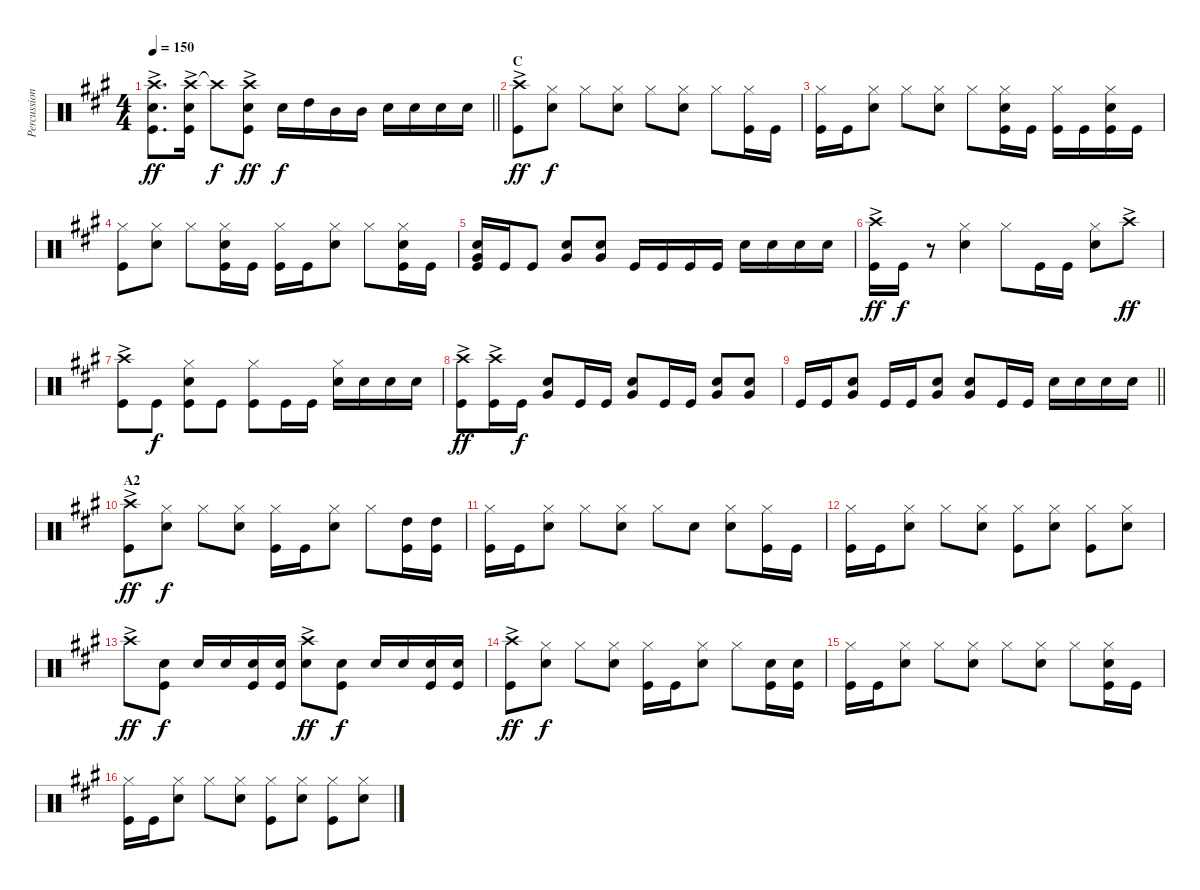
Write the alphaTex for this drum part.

\track ("Percussion" "Percussion") {instrument percussion}
\staff {score}
\articulation defaults
\ts (4 4)
\tempo 150
\clef neutral
\barLineRight lightlight
\ks a
("Crash high (hit)"{ac} "Snare (hit) 2" "Kick (hit)").8{d dy ff} ("Crash high (hit)"{ac} "Snare (hit) 2" "Kick (hit)").16 "Crash high (hit)"{t}.8{dy f} ("Crash high (hit)"{ac} "Snare (hit) 2" "Kick (hit)").8{dy ff} "Snare (hit) 2".16{dy f} "High Tom (hit)".16 "Mid Tom (hit)".16 "Mid Tom (hit)".16 "Snare (hit) 2".16 "Snare (hit) 2".16 "Snare (hit) 2".16 "Snare (hit) 2".16 |
\section ("" "C")
("Crash high (hit)"{ac} "Kick (hit)").8{dy ff} ("Hi-Hat (closed)" "Snare (hit) 2").8{dy f} "Hi-Hat (closed)".8 ("Hi-Hat (closed)" "Snare (hit) 2").8 "Hi-Hat (closed)".8 ("Hi-Hat (closed)" "Snare (hit) 2").8 "Hi-Hat (closed)".8 ("Hi-Hat (closed)" "Kick (hit)").16 "Kick (hit)".16 |
("Kick (hit)" "Hi-Hat (closed)").16 "Kick (hit)".16 ("Hi-Hat (closed)" "Snare (hit) 2").8 "Hi-Hat (closed)".8 ("Hi-Hat (closed)" "Snare (hit) 2").8 "Hi-Hat (closed)".8 ("Hi-Hat (closed)" "Snare (hit) 2" "Kick (hit)").16 "Kick (hit)".16 ("Hi-Hat (closed)" "Kick (hit)").16 "Kick (hit)".16 ("Hi-Hat (closed)" "Snare (hit) 2" "Kick (hit)").16 "Kick (hit)".16 |
("Hi-Hat (closed)" "Kick (hit)").8 ("Hi-Hat (closed)" "Snare (hit) 2").8 "Hi-Hat (closed)".8 ("Hi-Hat (closed)" "Snare (hit) 2" "Kick (hit)").16 "Kick (hit)".16 ("Kick (hit)" "Hi-Hat (closed)").16 "Kick (hit)".16 ("Hi-Hat (closed)" "Snare (hit) 2").8 "Hi-Hat (closed)".8 ("Hi-Hat (closed)" "Snare (hit) 2" "Kick (hit)").16 "Kick (hit)".16 |
("Snare (hit) 2" "Very Low Tom (hit)" "Kick (hit)").16 "Kick (hit)".16 "Kick (hit)".8 ("Snare (hit) 2" "Very Low Tom (hit)").8 ("Snare (hit) 2" "Very Low Tom (hit)").8 "Kick (hit)".16 "Kick (hit)".16 "Kick (hit)".16 "Kick (hit)".16 "Snare (hit) 2".16 "Snare (hit) 2".16 "Snare (hit) 2".16 "Snare (hit) 2".16 |
("Kick (hit)" "Crash high (hit)"{ac}).16{dy ff} "Kick (hit)".16{dy f} r.8 ("Hi-Hat (closed)" "Snare (hit) 2").4 "Hi-Hat (closed)".8 "Kick (hit)".16 "Kick (hit)".16 ("Hi-Hat (closed)" "Snare (hit) 2").8 "Crash high (hit)"{ac}.8{dy ff} |
("Crash high (hit)"{ac} "Kick (hit)").8 "Kick (hit)".8{dy f} ("Kick (hit)" "Hi-Hat (closed)" "Snare (hit) 2").8 "Kick (hit)".8 ("Kick (hit)" "Hi-Hat (closed)").8 "Kick (hit)".16 "Kick (hit)".16 ("Hi-Hat (closed)" "Snare (hit) 2").16 "Snare (hit) 2".16 "Snare (hit) 2".16 "Snare (hit) 2".16 |
("Crash high (hit)"{ac} "Kick (hit)").8{dy ff} ("Crash high (hit)"{ac} "Kick (hit)").16 "Kick (hit)".16{dy f} ("Snare (hit) 2" "Very Low Tom (hit)").8 "Kick (hit)".16 "Kick (hit)".16 ("Snare (hit) 2" "Very Low Tom (hit)").8 "Kick (hit)".16 "Kick (hit)".16 ("Snare (hit) 2" "Very Low Tom (hit)").8 ("Snare (hit) 2" "Very Low Tom (hit)").8 |
\barLineRight lightlight "Kick (hit)".16 "Kick (hit)".16
("Snare (hit) 2" "Very Low Tom (hit)").8 "Kick (hit)".16 "Kick (hit)".16 ("Snare (hit) 2" "Very Low Tom (hit)").8 ("Snare (hit) 2" "Very Low Tom (hit)").8 "Kick (hit)".16 "Kick (hit)".16 "Snare (hit) 2".16 "Snare (hit) 2".16 "Snare (hit) 2".16 "Snare (hit) 2".16 |
\section ("" "A2")
("Crash high (hit)"{ac} "Kick (hit)").8{dy ff} ("Hi-Hat (closed)" "Snare (hit) 2").8{dy f} "Hi-Hat (closed)".8 ("Hi-Hat (closed)" "Snare (hit) 2").8 ("Hi-Hat (closed)" "Kick (hit)").16 "Kick (hit)".16 ("Hi-Hat (closed)" "Snare (hit) 2").8 "Hi-Hat (closed)".8 ("High Tom (hit)" "Kick (hit)").16 ("High Tom (hit)" "Kick (hit)").16 |
("Kick (hit)" "Hi-Hat (closed)").16 "Kick (hit)".16 ("Hi-Hat (closed)" "Snare (hit) 2").8 "Hi-Hat (closed)".8 ("Hi-Hat (closed)" "Snare (hit) 2").8 "Hi-Hat (closed)".8 "Snare (hit) 2".8 ("Hi-Hat (closed)" "Snare (hit) 2").8 ("Hi-Hat (closed)" "Kick (hit)").16 "Kick (hit)".16 |
("Kick (hit)" "Hi-Hat (closed)").16 "Kick (hit)".16 ("Hi-Hat (closed)" "Snare (hit) 2").8 "Hi-Hat (closed)".8 ("Hi-Hat (closed)" "Snare (hit) 2").8 ("Hi-Hat (closed)" "Kick (hit)").8 ("Hi-Hat (closed)" "Snare (hit) 2").8 ("Kick (hit)" "Hi-Hat (closed)").8 ("Hi-Hat (closed)" "Snare (hit) 2").8 |
"Crash high (hit)"{ac}.8{dy ff} ("Snare (hit) 2" "Kick (hit)").8{dy f} "Snare (hit) 2".16 "Snare (hit) 2".16 ("Snare (hit) 2" "Kick (hit)").16 ("Snare (hit) 2" "Kick (hit)").16 ("Crash high (hit)"{ac} "Snare (hit) 2").8{dy ff} ("Snare (hit) 2" "Kick (hit)").8{dy f} "Snare (hit) 2".16 "Snare (hit) 2".16 ("Snare (hit) 2" "Kick (hit)").16 ("Snare (hit) 2" "Kick (hit)").16 |
("Crash high (hit)"{ac} "Kick (hit)").8{dy ff} ("Hi-Hat (closed)" "Snare (hit) 2").8{dy f} "Hi-Hat (closed)".8 ("Hi-Hat (closed)" "Snare (hit) 2").8 ("Kick (hit)" "Hi-Hat (closed)").16 "Kick (hit)".16 ("Hi-Hat (closed)" "Snare (hit) 2").8 "Hi-Hat (closed)".8 ("Snare (hit) 2" "Kick (hit)").16 ("Kick (hit)" "Snare (hit) 2").16 |
("Hi-Hat (closed)" "Kick (hit)").16 "Kick (hit)".16 ("Hi-Hat (closed)" "Snare (hit) 2").8 "Hi-Hat (closed)".8 ("Hi-Hat (closed)" "Snare (hit) 2").8 "Hi-Hat (closed)".8 ("Hi-Hat (closed)" "Snare (hit) 2").8 "Hi-Hat (closed)".8 ("Hi-Hat (closed)" "Snare (hit) 2" "Kick (hit)").16 "Kick (hit)".16 |
("Kick (hit)" "Hi-Hat (closed)").16 "Kick (hit)".16 ("Hi-Hat (closed)" "Snare (hit) 2").8 "Hi-Hat (closed)".8 ("Hi-Hat (closed)" "Snare (hit) 2").8 ("Hi-Hat (closed)" "Kick (hit)").8 ("Hi-Hat (closed)" "Snare (hit) 2").8 ("Hi-Hat (closed)" "Kick (hit)").8 ("Hi-Hat (closed)" "Snare (hit) 2").8
